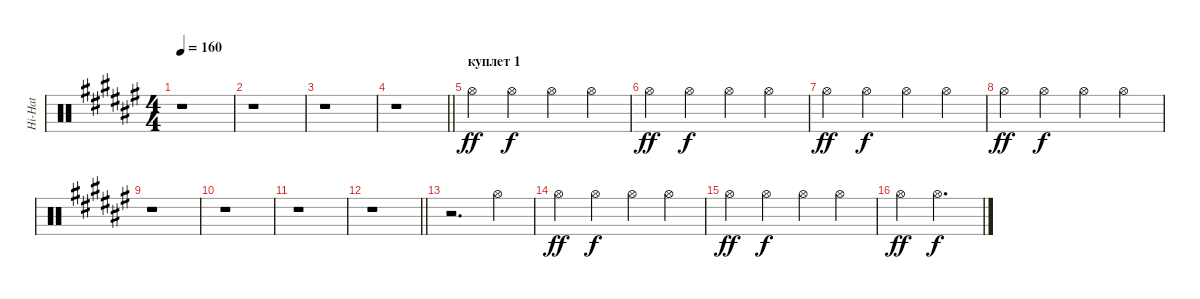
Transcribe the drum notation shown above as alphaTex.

\track ("Hi-Hat" "Hi-Hat") {instrument percussion}
\staff {score}
\articulation defaults
\ts (4 4)
\tempo 160
\clef neutral
\ks d#minor
r.1{dy f} |
r.1 |
r.1 |
\barLineRight lightlight
r.1 |
\section ("" "куплет 1")
"Hi-Hat (open)".4{dy ff} "Hi-Hat (open)".4{dy f} "Hi-Hat (open)".4 "Hi-Hat (open)".4 |
"Hi-Hat (open)".4{dy ff} "Hi-Hat (open)".4{dy f} "Hi-Hat (open)".4 "Hi-Hat (open)".4 |
"Hi-Hat (open)".4{dy ff} "Hi-Hat (open)".4{dy f} "Hi-Hat (open)".4 "Hi-Hat (open)".4 |
"Hi-Hat (open)".4{dy ff} "Hi-Hat (open)".4{dy f} "Hi-Hat (open)".4 "Hi-Hat (open)".4 |
r.1 |
r.1 |
r.1 |
\barLineRight lightlight
r.1 |
r.2{d} "Hi-Hat (open)".4 |
"Hi-Hat (open)".4{dy ff} "Hi-Hat (open)".4{dy f} "Hi-Hat (open)".4 "Hi-Hat (open)".4 |
"Hi-Hat (open)".4{dy ff} "Hi-Hat (open)".4{dy f} "Hi-Hat (open)".4 "Hi-Hat (open)".4 |
"Hi-Hat (open)".4{dy ff} "Hi-Hat (open)".2{d dy f}
